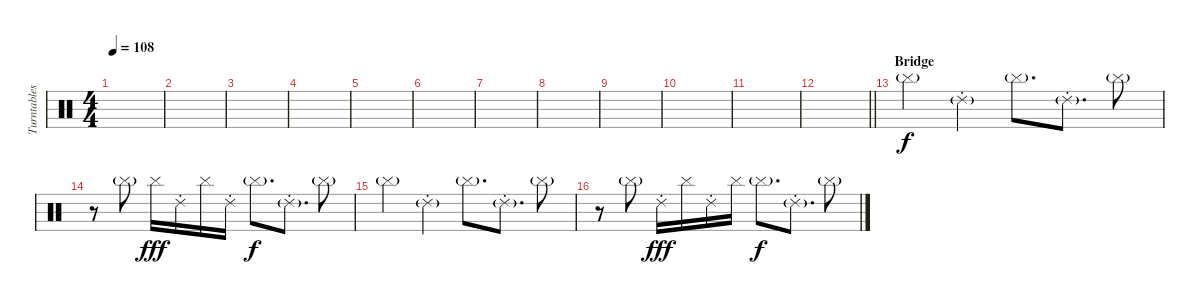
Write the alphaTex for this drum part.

\track ("Turntables - Joe Hahn" "Turntables") {instrument percussion}
\staff {score}
\articulation defaults
\ts (4 4)
\tempo 108
\clef neutral
\ks c
|
|
|
|
|
|
|
|
|
|
|
\barLineRight lightlight
|
\section ("" "Bridge")
"Cymbal (hit)"{g}.4 "Ride (choke) 2"{g}.4 "Cymbal (hit)"{g}.8{d} "Ride (choke) 2"{g}.8{d} "Cymbal (hit)"{g}.8 |
r.8 "Cymbal (hit)"{g}.8 "Cymbal (hit)".16{dy fff} "Ride (choke) 2".16 "Cymbal (hit)".16 "Ride (choke) 2".16 "Cymbal (hit)"{g}.8{d dy f} "Ride (choke) 2"{g}.8{d} "Cymbal (hit)"{g}.8 |
"Cymbal (hit)"{g}.4 "Ride (choke) 2"{g}.4 "Cymbal (hit)"{g}.8{d} "Ride (choke) 2"{g}.8{d} "Cymbal (hit)"{g}.8 |
r.8 "Cymbal (hit)"{g}.8 "Ride (choke) 2".16{dy fff} "Cymbal (hit)".16 "Ride (choke) 2".16 "Cymbal (hit)".16 "Cymbal (hit)"{g}.8{d dy f} "Ride (choke) 2"{g}.8{d} "Cymbal (hit)"{g}.8
